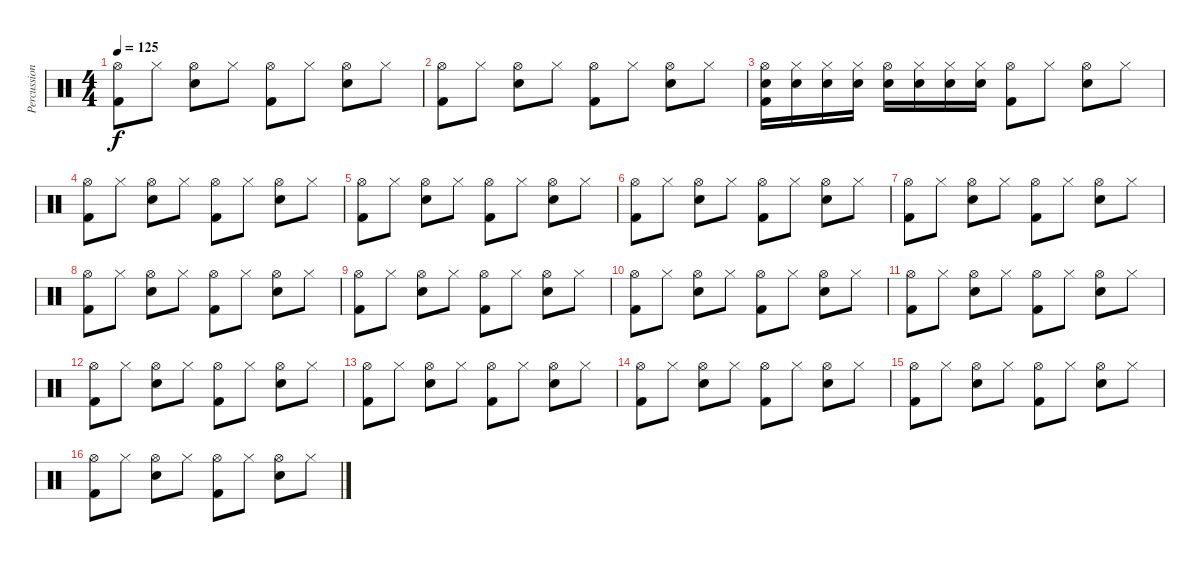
\track ("Percussions" "Percussion") {instrument percussion}
\staff {score}
\articulation defaults
\ts (4 4)
\tempo 125
\clef neutral
\ks c
("Hi-Hat (open)" "Kick (hit) 2").8{dy f} "Hi-Hat (closed)".8 ("Hi-Hat (open)" "Snare (hit) 2").8 "Hi-Hat (closed)".8 ("Hi-Hat (open)" "Kick (hit) 2").8 "Hi-Hat (closed)".8 ("Hi-Hat (open)" "Snare (hit) 2").8 "Hi-Hat (closed)".8 |
("Hi-Hat (open)" "Kick (hit) 2").8 "Hi-Hat (closed)".8 ("Hi-Hat (open)" "Snare (hit) 2").8 "Hi-Hat (closed)".8 ("Hi-Hat (open)" "Kick (hit) 2").8 "Hi-Hat (closed)".8 ("Hi-Hat (open)" "Snare (hit) 2").8 "Hi-Hat (closed)".8 |
("Hi-Hat (open)" "Snare (hit) 2" "Kick (hit) 2").16 ("Hi-Hat (closed)" "Snare (hit) 2").16 ("Hi-Hat (closed)" "Snare (hit) 2").16 ("Hi-Hat (closed)" "Snare (hit) 2").16 ("Hi-Hat (open)" "Snare (hit) 2").16 ("Hi-Hat (closed)" "Snare (hit) 2").16 ("Hi-Hat (closed)" "Snare (hit) 2").16 ("Hi-Hat (closed)" "Snare (hit) 2").16 ("Hi-Hat (open)" "Kick (hit) 2").8 "Hi-Hat (closed)".8 ("Hi-Hat (open)" "Snare (hit) 2").8 "Hi-Hat (closed)".8 |
("Hi-Hat (open)" "Kick (hit) 2").8 "Hi-Hat (closed)".8 ("Hi-Hat (open)" "Snare (hit) 2").8 "Hi-Hat (closed)".8 ("Hi-Hat (open)" "Kick (hit) 2").8 "Hi-Hat (closed)".8 ("Hi-Hat (open)" "Snare (hit) 2").8 "Hi-Hat (closed)".8 |
("Hi-Hat (open)" "Kick (hit) 2").8 "Hi-Hat (closed)".8 ("Hi-Hat (open)" "Snare (hit) 2").8 "Hi-Hat (closed)".8 ("Hi-Hat (open)" "Kick (hit) 2").8 "Hi-Hat (closed)".8 ("Hi-Hat (open)" "Snare (hit) 2").8 "Hi-Hat (closed)".8 |
("Hi-Hat (open)" "Kick (hit) 2").8 "Hi-Hat (closed)".8 ("Hi-Hat (open)" "Snare (hit) 2").8 "Hi-Hat (closed)".8 ("Hi-Hat (open)" "Kick (hit) 2").8 "Hi-Hat (closed)".8 ("Hi-Hat (open)" "Snare (hit) 2").8 "Hi-Hat (closed)".8 |
("Hi-Hat (open)" "Kick (hit) 2").8 "Hi-Hat (closed)".8 ("Hi-Hat (open)" "Snare (hit) 2").8 "Hi-Hat (closed)".8 ("Hi-Hat (open)" "Kick (hit) 2").8 "Hi-Hat (closed)".8 ("Hi-Hat (open)" "Snare (hit) 2").8 "Hi-Hat (closed)".8 |
("Hi-Hat (open)" "Kick (hit) 2").8 "Hi-Hat (closed)".8 ("Hi-Hat (open)" "Snare (hit) 2").8 "Hi-Hat (closed)".8 ("Hi-Hat (open)" "Kick (hit) 2").8 "Hi-Hat (closed)".8 ("Hi-Hat (open)" "Snare (hit) 2").8 "Hi-Hat (closed)".8 |
("Hi-Hat (open)" "Kick (hit) 2").8 "Hi-Hat (closed)".8 ("Hi-Hat (open)" "Snare (hit) 2").8 "Hi-Hat (closed)".8 ("Hi-Hat (open)" "Kick (hit) 2").8 "Hi-Hat (closed)".8 ("Hi-Hat (open)" "Snare (hit) 2").8 "Hi-Hat (closed)".8 |
("Hi-Hat (open)" "Kick (hit) 2").8 "Hi-Hat (closed)".8 ("Hi-Hat (open)" "Snare (hit) 2").8 "Hi-Hat (closed)".8 ("Hi-Hat (open)" "Kick (hit) 2").8 "Hi-Hat (closed)".8 ("Hi-Hat (open)" "Snare (hit) 2").8 "Hi-Hat (closed)".8 |
("Hi-Hat (open)" "Kick (hit) 2").8 "Hi-Hat (closed)".8 ("Hi-Hat (open)" "Snare (hit) 2").8 "Hi-Hat (closed)".8 ("Hi-Hat (open)" "Kick (hit) 2").8 "Hi-Hat (closed)".8 ("Hi-Hat (open)" "Snare (hit) 2").8 "Hi-Hat (closed)".8 |
("Hi-Hat (open)" "Kick (hit) 2").8 "Hi-Hat (closed)".8 ("Hi-Hat (open)" "Snare (hit) 2").8 "Hi-Hat (closed)".8 ("Hi-Hat (open)" "Kick (hit) 2").8 "Hi-Hat (closed)".8 ("Hi-Hat (open)" "Snare (hit) 2").8 "Hi-Hat (closed)".8 |
("Hi-Hat (open)" "Kick (hit) 2").8 "Hi-Hat (closed)".8 ("Hi-Hat (open)" "Snare (hit) 2").8 "Hi-Hat (closed)".8 ("Hi-Hat (open)" "Kick (hit) 2").8 "Hi-Hat (closed)".8 ("Hi-Hat (open)" "Snare (hit) 2").8 "Hi-Hat (closed)".8 |
("Hi-Hat (open)" "Kick (hit) 2").8 "Hi-Hat (closed)".8 ("Hi-Hat (open)" "Snare (hit) 2").8 "Hi-Hat (closed)".8 ("Hi-Hat (open)" "Kick (hit) 2").8 "Hi-Hat (closed)".8 ("Hi-Hat (open)" "Snare (hit) 2").8 "Hi-Hat (closed)".8 |
("Hi-Hat (open)" "Kick (hit) 2").8 "Hi-Hat (closed)".8 ("Hi-Hat (open)" "Snare (hit) 2").8 "Hi-Hat (closed)".8 ("Hi-Hat (open)" "Kick (hit) 2").8 "Hi-Hat (closed)".8 ("Hi-Hat (open)" "Snare (hit) 2").8 "Hi-Hat (closed)".8 |
("Hi-Hat (open)" "Kick (hit) 2").8 "Hi-Hat (closed)".8 ("Hi-Hat (open)" "Snare (hit) 2").8 "Hi-Hat (closed)".8 ("Hi-Hat (open)" "Kick (hit) 2").8 "Hi-Hat (closed)".8 ("Hi-Hat (open)" "Snare (hit) 2").8 "Hi-Hat (closed)".8
